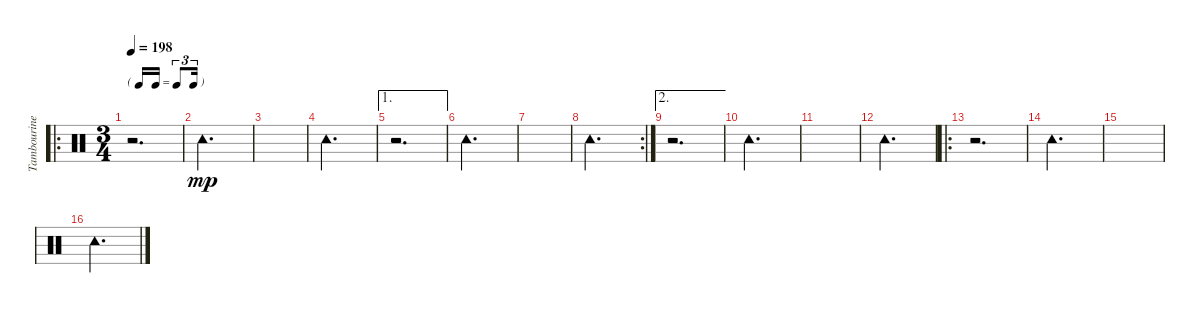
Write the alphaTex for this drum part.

\track ("Tambourine" "Tambourine") {instrument percussion}
\staff {score}
\articulation defaults
\ro
\ts (3 4)
\tf triplet16th
\tempo 198
\clef neutral
\ks c
r.2{d dy mp} |
"Tambourine (hit)".2{d} |
|
"Tambourine (hit)".2{d} |
\ae 1
r.2{d} |
"Tambourine (hit)".2{d} |
|
\rc 2 "Tambourine (hit)".2{d}
|
\ae 2
r.2{d} |
"Tambourine (hit)".2{d} |
|
"Tambourine (hit)".2{d} |
\ro
r.2{d} |
"Tambourine (hit)".2{d} |
|
"Tambourine (hit)".2{d}
